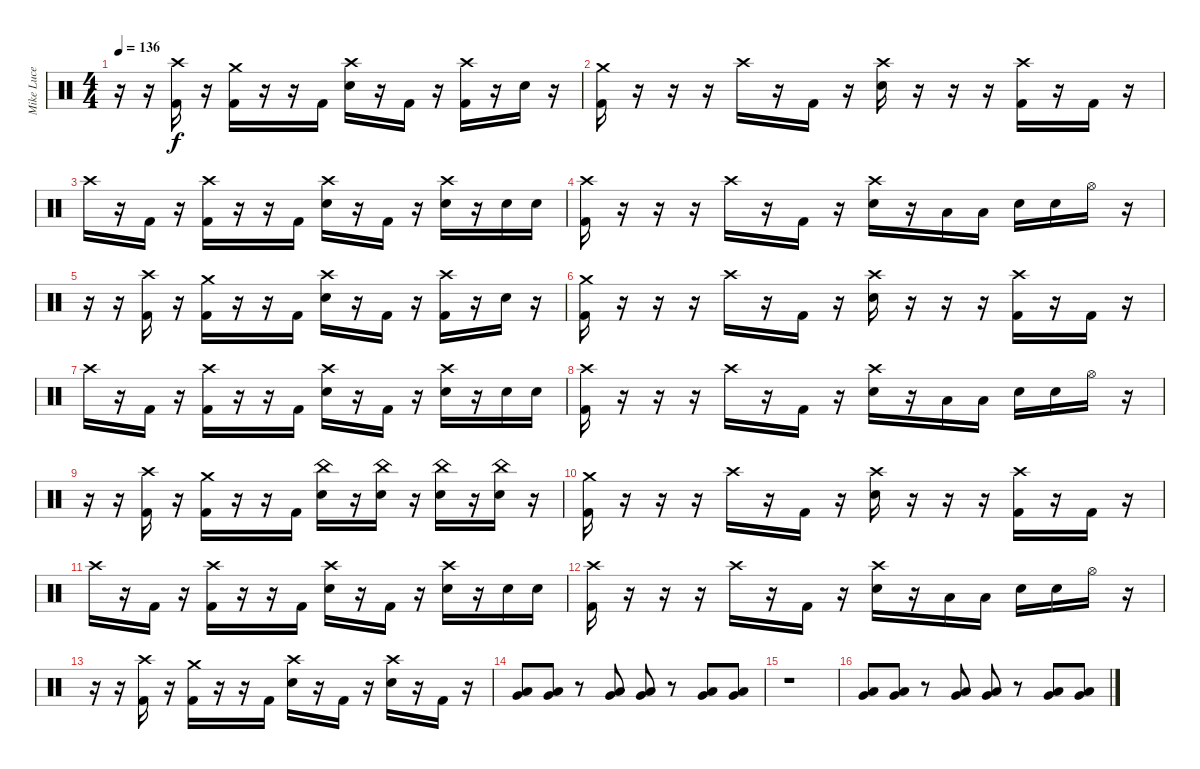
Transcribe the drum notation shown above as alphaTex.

\track ("Mike Luce" "Mike Luce") {instrument percussion}
\staff {score}
\articulation defaults
\ts (4 4)
\tempo 136
\clef neutral
\ks c
r.16{dy f} r.16 ("Crash high (hit)" "Kick (hit) 2").16 r.16 ("Crash medium (hit)" "Kick (hit) 2").16 r.16 r.16 "Kick (hit) 2".16 ("Crash high (hit)" "Electric Snare (hit)").16 r.16 "Kick (hit) 2".16 r.16 ("Crash high (hit)" "Kick (hit) 2").16 r.16 "Electric Snare (hit)".16 r.16 |
("Crash medium (hit)" "Kick (hit) 2").16 r.16 r.16 r.16 "Crash high (hit)".16 r.16 "Kick (hit) 2".16 r.16 ("Crash high (hit)" "Electric Snare (hit)").16 r.16 r.16 r.16 ("Crash high (hit)" "Kick (hit) 2").16 r.16 "Kick (hit) 2".16 r.16 |
"Crash high (hit)".16 r.16 "Kick (hit) 2".16 r.16 ("Crash high (hit)" "Kick (hit) 2").16 r.16 r.16 "Kick (hit) 2".16 ("Crash high (hit)" "Electric Snare (hit)").16 r.16 "Kick (hit) 2".16 r.16 ("Crash high (hit)" "Electric Snare (hit)").16 r.16 "Electric Snare (hit)".16 "Electric Snare (hit)".16 |
("Crash high (hit)" "Kick (hit) 2").16 r.16 r.16 r.16 "Crash high (hit)".16 r.16 "Kick (hit) 2".16 r.16 ("Crash high (hit)" "Electric Snare (hit)").16 r.16 "Low Tom (hit)".16 "Low Tom (hit)".16 "Electric Snare (hit)".16 "Electric Snare (hit)".16 "Hi-Hat (open)".16 r.16 |
r.16 r.16 ("Crash high (hit)" "Kick (hit) 2").16 r.16 ("Crash medium (hit)" "Kick (hit) 2").16 r.16 r.16 "Kick (hit) 2".16 ("Crash high (hit)" "Electric Snare (hit)").16 r.16 "Kick (hit) 2".16 r.16 ("Crash high (hit)" "Kick (hit) 2").16 r.16 "Electric Snare (hit)".16 r.16 |
("Crash medium (hit)" "Kick (hit) 2").16 r.16 r.16 r.16 "Crash high (hit)".16 r.16 "Kick (hit) 2".16 r.16 ("Crash high (hit)" "Electric Snare (hit)").16 r.16 r.16 r.16 ("Crash high (hit)" "Kick (hit) 2").16 r.16 "Kick (hit) 2".16 r.16 |
"Crash high (hit)".16 r.16 "Kick (hit) 2".16 r.16 ("Crash high (hit)" "Kick (hit) 2").16 r.16 r.16 "Kick (hit) 2".16 ("Crash high (hit)" "Electric Snare (hit)").16 r.16 "Kick (hit) 2".16 r.16 ("Crash high (hit)" "Electric Snare (hit)").16 r.16 "Electric Snare (hit)".16 "Electric Snare (hit)".16 |
("Crash high (hit)" "Kick (hit) 2").16 r.16 r.16 r.16 "Crash high (hit)".16 r.16 "Kick (hit) 2".16 r.16 ("Crash high (hit)" "Electric Snare (hit)").16 r.16 "Low Tom (hit)".16 "Low Tom (hit)".16 "Electric Snare (hit)".16 "Electric Snare (hit)".16 "Hi-Hat (open)".16 r.16 |
r.16 r.16 ("Crash high (hit)" "Kick (hit) 2").16 r.16 ("Crash medium (hit)" "Kick (hit) 2").16 r.16 r.16 "Kick (hit) 2".16 ("China (hit)" "Electric Snare (hit)").16 r.16 ("China (hit)" "Electric Snare (hit)").16 r.16 ("China (hit)" "Electric Snare (hit)").16 r.16 ("China (hit)" "Electric Snare (hit)").16 r.16 |
("Crash medium (hit)" "Kick (hit) 2").16 r.16 r.16 r.16 "Crash high (hit)".16 r.16 "Kick (hit) 2".16 r.16 ("Crash high (hit)" "Electric Snare (hit)").16 r.16 r.16 r.16 ("Crash high (hit)" "Kick (hit) 2").16 r.16 "Kick (hit) 2".16 r.16 |
"Crash high (hit)".16 r.16 "Kick (hit) 2".16 r.16 ("Crash high (hit)" "Kick (hit) 2").16 r.16 r.16 "Kick (hit) 2".16 ("Crash high (hit)" "Electric Snare (hit)").16 r.16 "Kick (hit) 2".16 r.16 ("Crash high (hit)" "Electric Snare (hit)").16 r.16 "Electric Snare (hit)".16 "Electric Snare (hit)".16 |
("Crash high (hit)" "Kick (hit) 2").16 r.16 r.16 r.16 "Crash high (hit)".16 r.16 "Kick (hit) 2".16 r.16 ("Crash high (hit)" "Electric Snare (hit)").16 r.16 "Low Tom (hit)".16 "Low Tom (hit)".16 "Electric Snare (hit)".16 "Electric Snare (hit)".16 "Hi-Hat (open)".16 r.16 |
r.16 r.16 ("Crash high (hit)" "Kick (hit) 2").16 r.16 ("Crash medium (hit)" "Kick (hit) 2").16 r.16 r.16 "Kick (hit) 2".16 ("Crash high (hit)" "Electric Snare (hit)").16 r.16 "Kick (hit) 2".16 r.16 ("Crash high (hit)" "Electric Snare (hit)").16 r.16 "Kick (hit) 2".16 r.16 |
("Low Tom (hit)" "Very Low Tom (hit)").8 ("Low Tom (hit)" "Very Low Tom (hit)").8 r.8 ("Low Tom (hit)" "Very Low Tom (hit)").8 ("Low Tom (hit)" "Very Low Tom (hit)").8 r.8 ("Low Tom (hit)" "Very Low Tom (hit)").8 ("Low Tom (hit)" "Very Low Tom (hit)").8 |
r.1 |
("Low Tom (hit)" "Very Low Tom (hit)").8 ("Low Tom (hit)" "Very Low Tom (hit)").8 r.8 ("Low Tom (hit)" "Very Low Tom (hit)").8 ("Low Tom (hit)" "Very Low Tom (hit)").8 r.8 ("Low Tom (hit)" "Very Low Tom (hit)").8 ("Low Tom (hit)" "Very Low Tom (hit)").8
